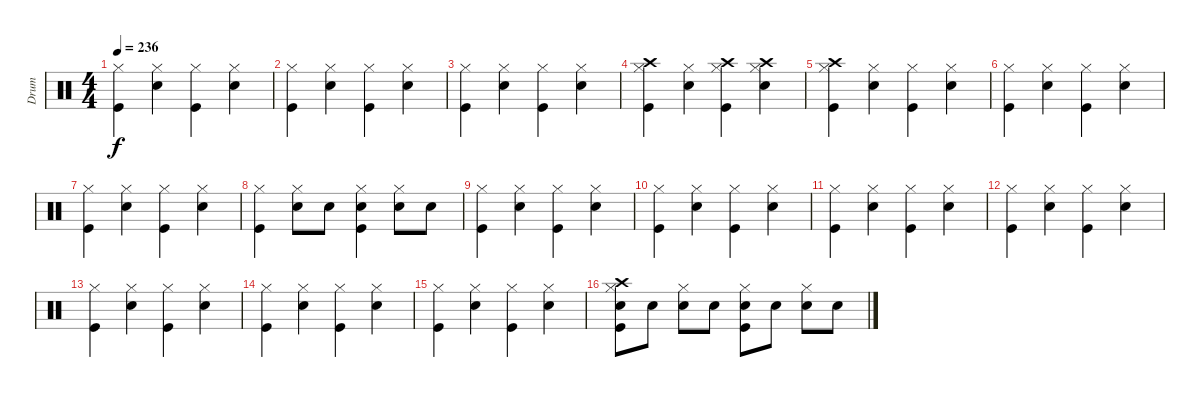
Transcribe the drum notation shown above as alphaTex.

\track ("Drum" "Drum") {instrument percussion}
\staff {score}
\articulation defaults
\ts (4 4)
\tempo 236
\clef neutral
\ks c
("Hi-Hat (closed)" "Kick (hit)").4{dy f} ("Hi-Hat (closed)" "Snare (hit) 2").4 ("Hi-Hat (closed)" "Kick (hit)").4 ("Hi-Hat (closed)" "Snare (hit) 2").4 |
("Hi-Hat (closed)" "Kick (hit)").4 ("Hi-Hat (closed)" "Snare (hit) 2").4 ("Hi-Hat (closed)" "Kick (hit)").4 ("Hi-Hat (closed)" "Snare (hit) 2").4 |
("Hi-Hat (closed)" "Kick (hit)").4 ("Hi-Hat (closed)" "Snare (hit) 2").4 ("Hi-Hat (closed)" "Kick (hit)").4 ("Hi-Hat (closed)" "Snare (hit) 2").4 |
("Crash high (hit)" "Hi-Hat (closed)" "Kick (hit)").4 ("Hi-Hat (closed)" "Snare (hit) 2").4 ("Crash high (hit)" "Hi-Hat (closed)" "Kick (hit)").4 ("Crash high (hit)" "Hi-Hat (closed)" "Snare (hit) 2").4 |
("Crash high (hit)" "Hi-Hat (closed)" "Kick (hit)").4 ("Hi-Hat (closed)" "Snare (hit) 2").4 ("Hi-Hat (closed)" "Kick (hit)").4 ("Hi-Hat (closed)" "Snare (hit) 2").4 |
("Hi-Hat (closed)" "Kick (hit)").4 ("Hi-Hat (closed)" "Snare (hit) 2").4 ("Hi-Hat (closed)" "Kick (hit)").4 ("Hi-Hat (closed)" "Snare (hit) 2").4 |
("Hi-Hat (closed)" "Kick (hit)").4 ("Hi-Hat (closed)" "Snare (hit) 2").4 ("Hi-Hat (closed)" "Kick (hit)").4 ("Hi-Hat (closed)" "Snare (hit) 2").4 |
("Hi-Hat (closed)" "Kick (hit)").4 ("Hi-Hat (closed)" "Snare (hit) 2").8 "Snare (hit) 2".8 ("Hi-Hat (closed)" "Snare (hit) 2" "Kick (hit)").4 ("Hi-Hat (closed)" "Snare (hit) 2").8 "Snare (hit) 2".8 |
("Hi-Hat (closed)" "Kick (hit)").4 ("Hi-Hat (closed)" "Snare (hit) 2").4 ("Hi-Hat (closed)" "Kick (hit)").4 ("Hi-Hat (closed)" "Snare (hit) 2").4 |
("Hi-Hat (closed)" "Kick (hit)").4 ("Hi-Hat (closed)" "Snare (hit) 2").4 ("Hi-Hat (closed)" "Kick (hit)").4 ("Hi-Hat (closed)" "Snare (hit) 2").4 |
("Hi-Hat (closed)" "Kick (hit)").4 ("Hi-Hat (closed)" "Snare (hit) 2").4 ("Hi-Hat (closed)" "Kick (hit)").4 ("Hi-Hat (closed)" "Snare (hit) 2").4 |
("Hi-Hat (closed)" "Kick (hit)").4 ("Hi-Hat (closed)" "Snare (hit) 2").4 ("Hi-Hat (closed)" "Kick (hit)").4 ("Hi-Hat (closed)" "Snare (hit) 2").4 |
("Hi-Hat (closed)" "Kick (hit)").4 ("Hi-Hat (closed)" "Snare (hit) 2").4 ("Hi-Hat (closed)" "Kick (hit)").4 ("Hi-Hat (closed)" "Snare (hit) 2").4 |
("Hi-Hat (closed)" "Kick (hit)").4 ("Hi-Hat (closed)" "Snare (hit) 2").4 ("Hi-Hat (closed)" "Kick (hit)").4 ("Hi-Hat (closed)" "Snare (hit) 2").4 |
("Hi-Hat (closed)" "Kick (hit)").4 ("Hi-Hat (closed)" "Snare (hit) 2").4 ("Hi-Hat (closed)" "Kick (hit)").4 ("Hi-Hat (closed)" "Snare (hit) 2").4 |
("Crash high (hit)" "Hi-Hat (closed)" "Snare (hit) 2" "Kick (hit)").8 "Snare (hit) 2".8 ("Hi-Hat (closed)" "Snare (hit) 2").8 "Snare (hit) 2".8 ("Hi-Hat (closed)" "Snare (hit) 2" "Kick (hit)").8 "Snare (hit) 2".8 ("Hi-Hat (closed)" "Snare (hit) 2").8 "Snare (hit) 2".8
